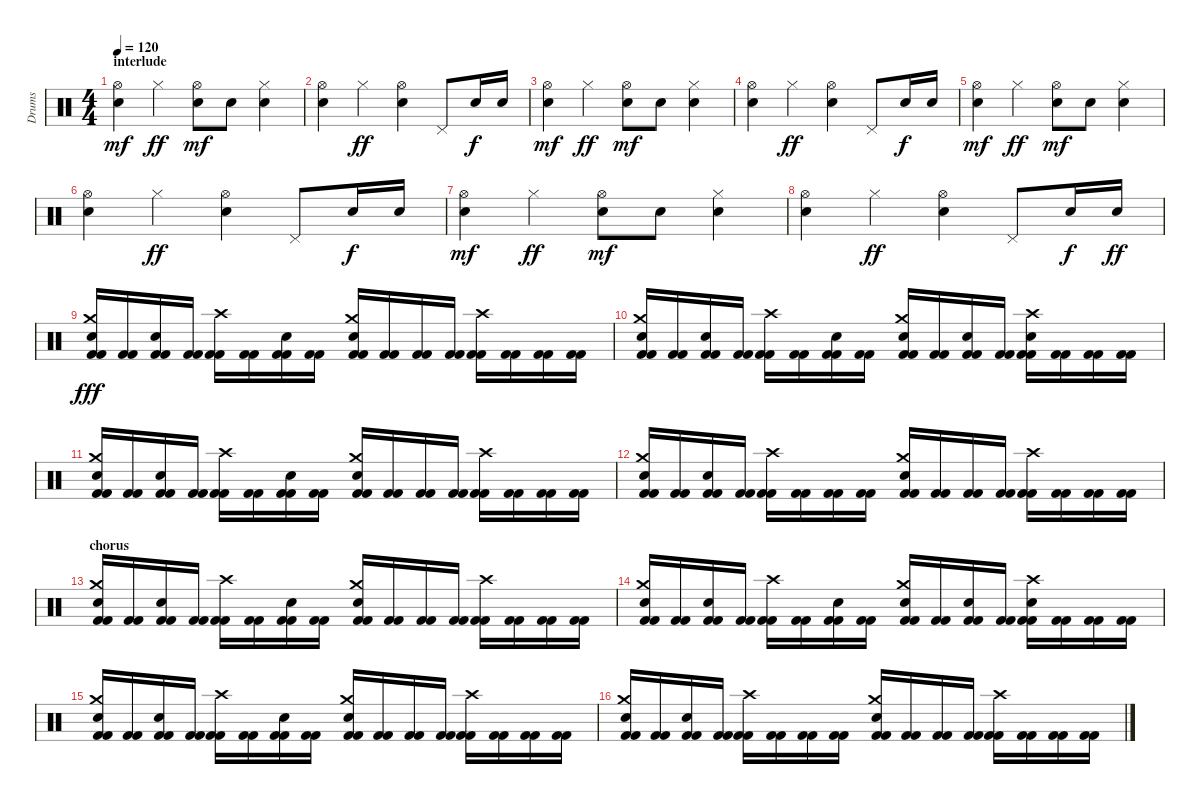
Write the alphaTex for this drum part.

\track ("Drums" "Drums") {instrument percussion}
\staff {score}
\articulation defaults
\ts (4 4)
\section ("" "interlude")
\tempo 120
\clef neutral
\ks c
("Hi-Hat (open)" "Electric Snare (hit)").4{dy mf} "Hi-Hat (closed)".4{dy ff} ("Hi-Hat (open)" "Electric Snare (hit)").8{dy mf} "Electric Snare (hit)".8 ("Hi-Hat (closed)" "Electric Snare (hit)").4 |
("Hi-Hat (open)" "Electric Snare (hit)").4 "Hi-Hat (closed)".4{dy ff} ("Electric Snare (hit)" "Hi-Hat (open)").4 "Pedal Hi-Hat (hit)".8 "Electric Snare (hit)".16{dy f} "Electric Snare (hit)".16 |
("Hi-Hat (open)" "Electric Snare (hit)").4{dy mf} "Hi-Hat (closed)".4{dy ff} ("Hi-Hat (open)" "Electric Snare (hit)").8{dy mf} "Electric Snare (hit)".8 ("Hi-Hat (closed)" "Electric Snare (hit)").4 |
("Hi-Hat (open)" "Electric Snare (hit)").4 "Hi-Hat (closed)".4{dy ff} ("Electric Snare (hit)" "Hi-Hat (open)").4 "Pedal Hi-Hat (hit)".8 "Electric Snare (hit)".16{dy f} "Electric Snare (hit)".16 |
("Hi-Hat (open)" "Electric Snare (hit)").4{dy mf} "Hi-Hat (closed)".4{dy ff} ("Hi-Hat (open)" "Electric Snare (hit)").8{dy mf} "Electric Snare (hit)".8 ("Hi-Hat (closed)" "Electric Snare (hit)").4 |
("Hi-Hat (open)" "Electric Snare (hit)").4 "Hi-Hat (closed)".4{dy ff} ("Electric Snare (hit)" "Hi-Hat (open)").4 "Pedal Hi-Hat (hit)".8 "Electric Snare (hit)".16{dy f} "Electric Snare (hit)".16 |
("Hi-Hat (open)" "Electric Snare (hit)").4{dy mf} "Hi-Hat (closed)".4{dy ff} ("Hi-Hat (open)" "Electric Snare (hit)").8{dy mf} "Electric Snare (hit)".8 ("Hi-Hat (closed)" "Electric Snare (hit)").4 |
("Hi-Hat (open)" "Electric Snare (hit)").4 "Hi-Hat (closed)".4{dy ff} ("Electric Snare (hit)" "Hi-Hat (open)").4 "Pedal Hi-Hat (hit)".8 "Electric Snare (hit)".16{dy f} "Electric Snare (hit)".16{dy ff} |
("Crash medium (hit)" "Electric Snare (hit)" "Kick (hit) 2" "Kick (hit) 2").16{dy fff} ("Kick (hit) 2" "Kick (hit) 2").16 ("Electric Snare (hit)" "Kick (hit) 2" "Kick (hit) 2").16 ("Kick (hit) 2" "Kick (hit) 2").16 ("Crash high (hit)" "Kick (hit) 2" "Kick (hit) 2").16 ("Kick (hit) 2" "Kick (hit) 2").16 ("Electric Snare (hit)" "Kick (hit) 2" "Kick (hit) 2").16 ("Kick (hit) 2" "Kick (hit) 2").16 ("Crash medium (hit)" "Electric Snare (hit)" "Kick (hit) 2" "Kick (hit) 2").16 ("Kick (hit) 2" "Kick (hit) 2").16 ("Kick (hit) 2" "Kick (hit) 2").16 ("Kick (hit) 2" "Kick (hit) 2").16 ("Crash high (hit)" "Kick (hit) 2" "Kick (hit) 2").16 ("Kick (hit) 2" "Kick (hit) 2").16 ("Kick (hit) 2" "Kick (hit) 2").16 ("Kick (hit) 2" "Kick (hit) 2").16 |
("Crash medium (hit)" "Electric Snare (hit)" "Kick (hit) 2" "Kick (hit) 2").16 ("Kick (hit) 2" "Kick (hit) 2").16 ("Electric Snare (hit)" "Kick (hit) 2" "Kick (hit) 2").16 ("Kick (hit) 2" "Kick (hit) 2").16 ("Crash high (hit)" "Kick (hit) 2" "Kick (hit) 2").16 ("Kick (hit) 2" "Kick (hit) 2").16 ("Electric Snare (hit)" "Kick (hit) 2" "Kick (hit) 2").16 ("Kick (hit) 2" "Kick (hit) 2").16 ("Crash medium (hit)" "Electric Snare (hit)" "Kick (hit) 2" "Kick (hit) 2").16 ("Kick (hit) 2" "Kick (hit) 2").16 ("Electric Snare (hit)" "Kick (hit) 2" "Kick (hit) 2").16 ("Kick (hit) 2" "Kick (hit) 2").16 ("Crash high (hit)" "Electric Snare (hit)" "Kick (hit) 2" "Kick (hit) 2").16 ("Kick (hit) 2" "Kick (hit) 2").16 ("Kick (hit) 2" "Kick (hit) 2").16 ("Kick (hit) 2" "Kick (hit) 2").16 |
("Crash medium (hit)" "Electric Snare (hit)" "Kick (hit) 2" "Kick (hit) 2").16 ("Kick (hit) 2" "Kick (hit) 2").16 ("Electric Snare (hit)" "Kick (hit) 2" "Kick (hit) 2").16 ("Kick (hit) 2" "Kick (hit) 2").16 ("Crash high (hit)" "Kick (hit) 2" "Kick (hit) 2").16 ("Kick (hit) 2" "Kick (hit) 2").16 ("Electric Snare (hit)" "Kick (hit) 2" "Kick (hit) 2").16 ("Kick (hit) 2" "Kick (hit) 2").16 ("Crash medium (hit)" "Electric Snare (hit)" "Kick (hit) 2" "Kick (hit) 2").16 ("Kick (hit) 2" "Kick (hit) 2").16 ("Kick (hit) 2" "Kick (hit) 2").16 ("Kick (hit) 2" "Kick (hit) 2").16 ("Crash high (hit)" "Kick (hit) 2" "Kick (hit) 2").16 ("Kick (hit) 2" "Kick (hit) 2").16 ("Kick (hit) 2" "Kick (hit) 2").16 ("Kick (hit) 2" "Kick (hit) 2").16 |
("Crash medium (hit)" "Electric Snare (hit)" "Kick (hit) 2" "Kick (hit) 2").16 ("Kick (hit) 2" "Kick (hit) 2").16 ("Electric Snare (hit)" "Kick (hit) 2" "Kick (hit) 2").16 ("Kick (hit) 2" "Kick (hit) 2").16 ("Crash high (hit)" "Kick (hit) 2" "Kick (hit) 2").16 ("Kick (hit) 2" "Kick (hit) 2").16 ("Kick (hit) 2" "Kick (hit) 2").16 ("Kick (hit) 2" "Kick (hit) 2").16 ("Crash medium (hit)" "Electric Snare (hit)" "Kick (hit) 2" "Kick (hit) 2").16 ("Kick (hit) 2" "Kick (hit) 2").16 ("Kick (hit) 2" "Kick (hit) 2").16 ("Kick (hit) 2" "Kick (hit) 2").16 ("Crash high (hit)" "Kick (hit) 2" "Kick (hit) 2").16 ("Kick (hit) 2" "Kick (hit) 2").16 ("Kick (hit) 2" "Kick (hit) 2").16 ("Kick (hit) 2" "Kick (hit) 2").16 |
\section ("" "chorus")
("Crash medium (hit)" "Electric Snare (hit)" "Kick (hit) 2" "Kick (hit) 2").16 ("Kick (hit) 2" "Kick (hit) 2").16 ("Electric Snare (hit)" "Kick (hit) 2" "Kick (hit) 2").16 ("Kick (hit) 2" "Kick (hit) 2").16 ("Crash high (hit)" "Kick (hit) 2" "Kick (hit) 2").16 ("Kick (hit) 2" "Kick (hit) 2").16 ("Electric Snare (hit)" "Kick (hit) 2" "Kick (hit) 2").16 ("Kick (hit) 2" "Kick (hit) 2").16 ("Crash medium (hit)" "Electric Snare (hit)" "Kick (hit) 2" "Kick (hit) 2").16 ("Kick (hit) 2" "Kick (hit) 2").16 ("Kick (hit) 2" "Kick (hit) 2").16 ("Kick (hit) 2" "Kick (hit) 2").16 ("Crash high (hit)" "Kick (hit) 2" "Kick (hit) 2").16 ("Kick (hit) 2" "Kick (hit) 2").16 ("Kick (hit) 2" "Kick (hit) 2").16 ("Kick (hit) 2" "Kick (hit) 2").16 |
("Crash medium (hit)" "Electric Snare (hit)" "Kick (hit) 2" "Kick (hit) 2").16 ("Kick (hit) 2" "Kick (hit) 2").16 ("Electric Snare (hit)" "Kick (hit) 2" "Kick (hit) 2").16 ("Kick (hit) 2" "Kick (hit) 2").16 ("Crash high (hit)" "Kick (hit) 2" "Kick (hit) 2").16 ("Kick (hit) 2" "Kick (hit) 2").16 ("Electric Snare (hit)" "Kick (hit) 2" "Kick (hit) 2").16 ("Kick (hit) 2" "Kick (hit) 2").16 ("Crash medium (hit)" "Electric Snare (hit)" "Kick (hit) 2" "Kick (hit) 2").16 ("Kick (hit) 2" "Kick (hit) 2").16 ("Electric Snare (hit)" "Kick (hit) 2" "Kick (hit) 2").16 ("Kick (hit) 2" "Kick (hit) 2").16 ("Crash high (hit)" "Electric Snare (hit)" "Kick (hit) 2" "Kick (hit) 2").16 ("Kick (hit) 2" "Kick (hit) 2").16 ("Kick (hit) 2" "Kick (hit) 2").16 ("Kick (hit) 2" "Kick (hit) 2").16 |
("Crash medium (hit)" "Electric Snare (hit)" "Kick (hit) 2" "Kick (hit) 2").16 ("Kick (hit) 2" "Kick (hit) 2").16 ("Electric Snare (hit)" "Kick (hit) 2" "Kick (hit) 2").16 ("Kick (hit) 2" "Kick (hit) 2").16 ("Crash high (hit)" "Kick (hit) 2" "Kick (hit) 2").16 ("Kick (hit) 2" "Kick (hit) 2").16 ("Electric Snare (hit)" "Kick (hit) 2" "Kick (hit) 2").16 ("Kick (hit) 2" "Kick (hit) 2").16 ("Crash medium (hit)" "Electric Snare (hit)" "Kick (hit) 2" "Kick (hit) 2").16 ("Kick (hit) 2" "Kick (hit) 2").16 ("Kick (hit) 2" "Kick (hit) 2").16 ("Kick (hit) 2" "Kick (hit) 2").16 ("Crash high (hit)" "Kick (hit) 2" "Kick (hit) 2").16 ("Kick (hit) 2" "Kick (hit) 2").16 ("Kick (hit) 2" "Kick (hit) 2").16 ("Kick (hit) 2" "Kick (hit) 2").16 |
("Crash medium (hit)" "Electric Snare (hit)" "Kick (hit) 2" "Kick (hit) 2").16 ("Kick (hit) 2" "Kick (hit) 2").16 ("Electric Snare (hit)" "Kick (hit) 2" "Kick (hit) 2").16 ("Kick (hit) 2" "Kick (hit) 2").16 ("Crash high (hit)" "Kick (hit) 2" "Kick (hit) 2").16 ("Kick (hit) 2" "Kick (hit) 2").16 ("Kick (hit) 2" "Kick (hit) 2").16 ("Kick (hit) 2" "Kick (hit) 2").16 ("Crash medium (hit)" "Electric Snare (hit)" "Kick (hit) 2" "Kick (hit) 2").16 ("Kick (hit) 2" "Kick (hit) 2").16 ("Kick (hit) 2" "Kick (hit) 2").16 ("Kick (hit) 2" "Kick (hit) 2").16 ("Crash high (hit)" "Kick (hit) 2" "Kick (hit) 2").16 ("Kick (hit) 2" "Kick (hit) 2").16 ("Kick (hit) 2" "Kick (hit) 2").16 ("Kick (hit) 2" "Kick (hit) 2").16
